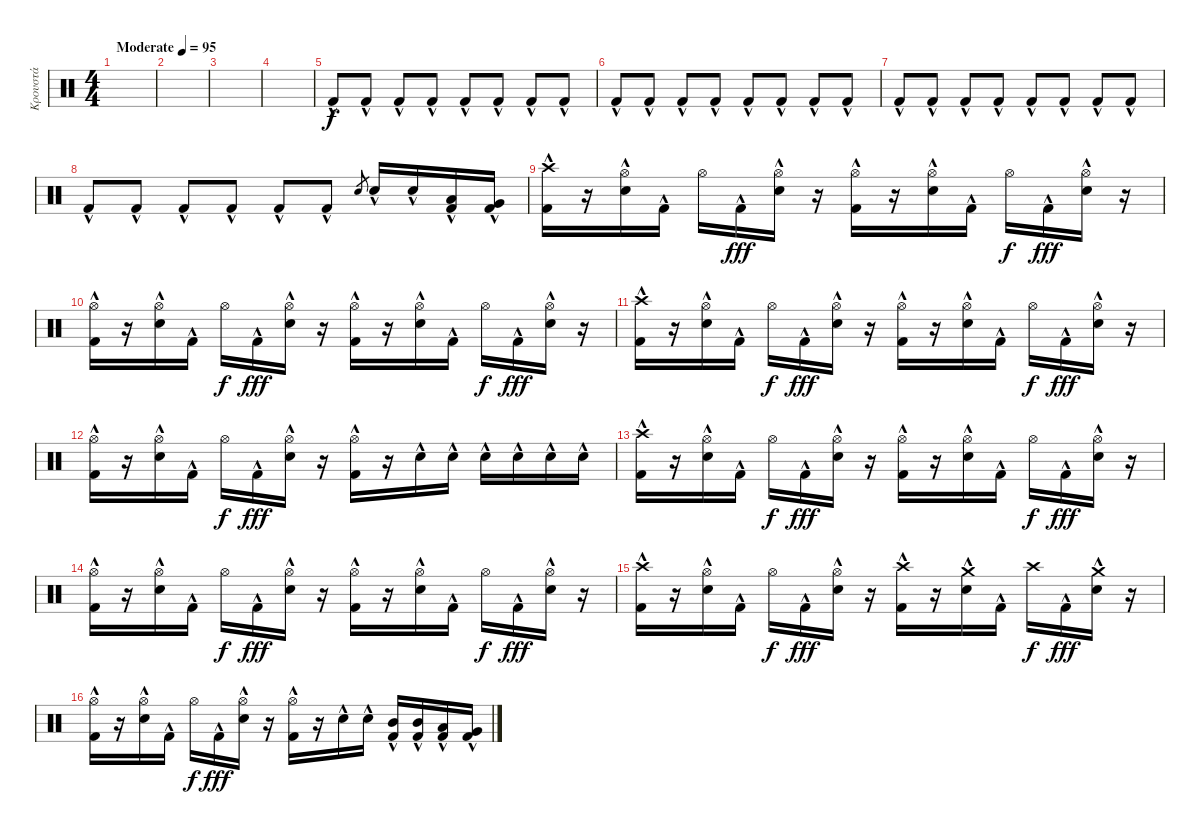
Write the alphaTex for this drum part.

\track ("Κρουστά" "Κρουστά") {instrument percussion}
\staff {score}
\articulation defaults
\ts (4 4)
\tempo (95 "Moderate")
\clef neutral
\ks c
|
|
|
|
"Kick (hit) 2"{hac}.8 "Kick (hit) 2"{hac}.8 "Kick (hit) 2"{hac}.8 "Kick (hit) 2"{hac}.8 "Kick (hit) 2"{hac}.8 "Kick (hit) 2"{hac}.8 "Kick (hit) 2"{hac}.8 "Kick (hit) 2"{hac}.8 |
"Kick (hit) 2"{hac}.8 "Kick (hit) 2"{hac}.8 "Kick (hit) 2"{hac}.8 "Kick (hit) 2"{hac}.8 "Kick (hit) 2"{hac}.8 "Kick (hit) 2"{hac}.8 "Kick (hit) 2"{hac}.8 "Kick (hit) 2"{hac}.8 |
"Kick (hit) 2"{hac}.8 "Kick (hit) 2"{hac}.8 "Kick (hit) 2"{hac}.8 "Kick (hit) 2"{hac}.8 "Kick (hit) 2"{hac}.8 "Kick (hit) 2"{hac}.8 "Kick (hit) 2"{hac}.8 "Kick (hit) 2"{hac}.8 |
"Kick (hit) 2"{hac}.8 "Kick (hit) 2"{hac}.8 "Kick (hit) 2"{hac}.8 "Kick (hit) 2"{hac}.8 "Kick (hit) 2"{hac}.8 "Kick (hit) 2"{hac}.8 "Electric Snare (hit)".8{gr} "Electric Snare (hit)"{hac}.16 "Electric Snare (hit)"{hac}.16 ("Low Tom (hit)" "Kick (hit) 2"{hac}).16 ("Very Low Tom (hit)" "Kick (hit) 2"{hac}).16 |
("Crash high (hit)" "Kick (hit) 2"{hac}).16 r.16 ("Hi-Hat (open)" "Electric Snare (hit)"{hac}).16 "Kick (hit) 2"{hac}.16 "Hi-Hat (open)".16{dy f} "Kick (hit) 2"{hac}.16{dy fff} ("Hi-Hat (open)" "Electric Snare (hit)"{hac}).16 r.16 ("Hi-Hat (open)" "Kick (hit) 2"{hac}).16 r.16 ("Hi-Hat (open)" "Electric Snare (hit)"{hac}).16 "Kick (hit) 2"{hac}.16 "Hi-Hat (open)".16{dy f} "Kick (hit) 2"{hac}.16{dy fff} ("Hi-Hat (open)" "Electric Snare (hit)"{hac}).16 r.16 |
("Hi-Hat (open)" "Kick (hit) 2"{hac}).16 r.16 ("Hi-Hat (open)" "Electric Snare (hit)"{hac}).16 "Kick (hit) 2"{hac}.16 "Hi-Hat (open)".16{dy f} "Kick (hit) 2"{hac}.16{dy fff} ("Hi-Hat (open)" "Electric Snare (hit)"{hac}).16 r.16 ("Hi-Hat (open)" "Kick (hit) 2"{hac}).16 r.16 ("Hi-Hat (open)" "Electric Snare (hit)"{hac}).16 "Kick (hit) 2"{hac}.16 "Hi-Hat (open)".16{dy f} "Kick (hit) 2"{hac}.16{dy fff} ("Hi-Hat (open)" "Electric Snare (hit)"{hac}).16 r.16 |
("Crash high (hit)" "Kick (hit) 2"{hac}).16 r.16 ("Hi-Hat (open)" "Electric Snare (hit)"{hac}).16 "Kick (hit) 2"{hac}.16 "Hi-Hat (open)".16{dy f} "Kick (hit) 2"{hac}.16{dy fff} ("Hi-Hat (open)" "Electric Snare (hit)"{hac}).16 r.16 ("Hi-Hat (open)" "Kick (hit) 2"{hac}).16 r.16 ("Hi-Hat (open)" "Electric Snare (hit)"{hac}).16 "Kick (hit) 2"{hac}.16 "Hi-Hat (open)".16{dy f} "Kick (hit) 2"{hac}.16{dy fff} ("Hi-Hat (open)" "Electric Snare (hit)"{hac}).16 r.16 |
("Hi-Hat (open)" "Kick (hit) 2"{hac}).16 r.16 ("Hi-Hat (open)" "Electric Snare (hit)"{hac}).16 "Kick (hit) 2"{hac}.16 "Hi-Hat (open)".16{dy f} "Kick (hit) 2"{hac}.16{dy fff} ("Hi-Hat (open)" "Electric Snare (hit)"{hac}).16 r.16 ("Hi-Hat (open)" "Kick (hit) 2"{hac}).16 r.16 "Electric Snare (hit)"{hac}.16 "Electric Snare (hit)"{hac}.16 "Electric Snare (hit)"{hac}.16 "Electric Snare (hit)"{hac}.16 "Electric Snare (hit)"{hac}.16 "Electric Snare (hit)"{hac}.16 |
("Crash high (hit)" "Kick (hit) 2"{hac}).16 r.16 ("Hi-Hat (open)" "Electric Snare (hit)"{hac}).16 "Kick (hit) 2"{hac}.16 "Hi-Hat (open)".16{dy f} "Kick (hit) 2"{hac}.16{dy fff} ("Hi-Hat (open)" "Electric Snare (hit)"{hac}).16 r.16 ("Hi-Hat (open)" "Kick (hit) 2"{hac}).16 r.16 ("Hi-Hat (open)" "Electric Snare (hit)"{hac}).16 "Kick (hit) 2"{hac}.16 "Hi-Hat (open)".16{dy f} "Kick (hit) 2"{hac}.16{dy fff} ("Hi-Hat (open)" "Electric Snare (hit)"{hac}).16 r.16 |
("Hi-Hat (open)" "Kick (hit) 2"{hac}).16 r.16 ("Hi-Hat (open)" "Electric Snare (hit)"{hac}).16 "Kick (hit) 2"{hac}.16 "Hi-Hat (open)".16{dy f} "Kick (hit) 2"{hac}.16{dy fff} ("Hi-Hat (open)" "Electric Snare (hit)"{hac}).16 r.16 ("Hi-Hat (open)" "Kick (hit) 2"{hac}).16 r.16 ("Hi-Hat (open)" "Electric Snare (hit)"{hac}).16 "Kick (hit) 2"{hac}.16 "Hi-Hat (open)".16{dy f} "Kick (hit) 2"{hac}.16{dy fff} ("Hi-Hat (open)" "Electric Snare (hit)"{hac}).16 r.16 |
("Crash high (hit)" "Kick (hit) 2"{hac}).16 r.16 ("Hi-Hat (open)" "Electric Snare (hit)"{hac}).16 "Kick (hit) 2"{hac}.16 "Hi-Hat (open)".16{dy f} "Kick (hit) 2"{hac}.16{dy fff} ("Hi-Hat (open)" "Electric Snare (hit)"{hac}).16 r.16 ("Crash high (hit)" "Kick (hit) 2"{hac}).16 r.16 ("Crash medium (hit)" "Electric Snare (hit)"{hac}).16 "Kick (hit) 2"{hac}.16 "Crash high (hit)".16{dy f} "Kick (hit) 2"{hac}.16{dy fff} ("Crash medium (hit)" "Electric Snare (hit)"{hac}).16 r.16 |
("Hi-Hat (open)" "Kick (hit) 2"{hac}).16 r.16 ("Hi-Hat (open)" "Electric Snare (hit)"{hac}).16 "Kick (hit) 2"{hac}.16 "Hi-Hat (open)".16{dy f} "Kick (hit) 2"{hac}.16{dy fff} ("Hi-Hat (open)" "Electric Snare (hit)"{hac}).16 r.16 ("Hi-Hat (open)" "Kick (hit) 2"{hac}).16 r.16 "Electric Snare (hit)"{hac}.16 "Electric Snare (hit)"{hac}.16 ("Mid Tom (hit)" "Kick (hit) 2"{hac}).16 ("Mid Tom (hit)" "Kick (hit) 2"{hac}).16 ("Low Tom (hit)" "Kick (hit) 2"{hac}).16 ("Very Low Tom (hit)" "Kick (hit) 2"{hac}).16
